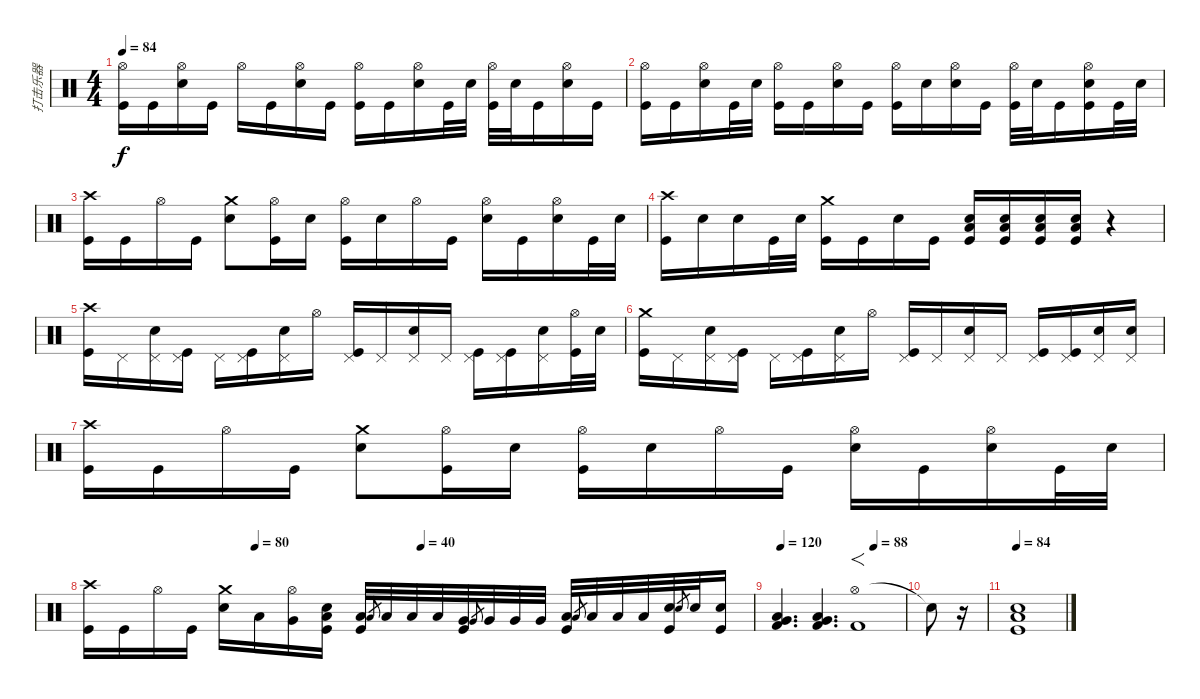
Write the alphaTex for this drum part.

\track ("打击乐器" "打击乐器") {instrument percussion}
\staff {score}
\articulation defaults
\ts (4 4)
\tempo 84
\clef neutral
\ks c
("Hi-Hat (open)" "Kick (hit)").16{dy f} "Kick (hit)".16 ("Hi-Hat (open)" "Electric Snare (hit)").16 "Kick (hit)".16 "Hi-Hat (open)".16 "Kick (hit)".16 ("Hi-Hat (open)" "Electric Snare (hit)").16 "Kick (hit)".16 ("Hi-Hat (open)" "Kick (hit)").16 "Kick (hit)".16 ("Hi-Hat (open)" "Electric Snare (hit)").16 "Kick (hit)".32 "Electric Snare (hit)".32 ("Hi-Hat (open)" "Kick (hit)").32 "Electric Snare (hit)".32 "Kick (hit)".16 ("Hi-Hat (open)" "Electric Snare (hit)").16 "Kick (hit)".16 |
("Hi-Hat (open)" "Kick (hit)").16 "Kick (hit)".16 ("Hi-Hat (open)" "Electric Snare (hit)").16 "Kick (hit)".32 "Electric Snare (hit)".32 ("Hi-Hat (open)" "Kick (hit)").16 "Kick (hit)".16 ("Hi-Hat (open)" "Electric Snare (hit)").16 "Kick (hit)".16 ("Hi-Hat (open)" "Kick (hit)").16 "Electric Snare (hit)".16 ("Hi-Hat (open)" "Electric Snare (hit)").16 "Kick (hit)".16 ("Hi-Hat (open)" "Kick (hit)").32 "Electric Snare (hit)".32 "Kick (hit)".16 ("Hi-Hat (open)" "Electric Snare (hit)" "Kick (hit)").16 "Kick (hit)".32 "Electric Snare (hit)".32 |
("Crash high (hit)" "Kick (hit)").16 "Kick (hit)".16 "Hi-Hat (open)".16 "Kick (hit)".16 ("Crash medium (hit)" "Electric Snare (hit)").8 ("Hi-Hat (open)" "Kick (hit)").16 "Electric Snare (hit)".16 ("Hi-Hat (open)" "Kick (hit)").16 "Electric Snare (hit)".16 "Hi-Hat (open)".16 "Kick (hit)".16 ("Hi-Hat (open)" "Electric Snare (hit)").16 "Kick (hit)".16 ("Hi-Hat (open)" "Electric Snare (hit)").16 "Kick (hit)".32 "Electric Snare (hit)".32 |
("Crash high (hit)" "Kick (hit)").16 "Electric Snare (hit)".16 "Electric Snare (hit)".16 "Kick (hit)".32 "Electric Snare (hit)".32 ("Crash medium (hit)" "Kick (hit)").16 "Kick (hit)".16 "Electric Snare (hit)".16 "Kick (hit)".16 ("Electric Snare (hit)" "Low Floor Tom (hit)" "Kick (hit)").16 ("Electric Snare (hit)" "Low Floor Tom (hit)" "Kick (hit)").16 ("Electric Snare (hit)" "Low Floor Tom (hit)" "Kick (hit)").16 ("Electric Snare (hit)" "Low Floor Tom (hit)" "Kick (hit)").16 r.4 |
("Crash high (hit)" "Kick (hit)").16 "Pedal Hi-Hat (hit)".16 ("Pedal Hi-Hat (hit)" "Electric Snare (hit)").16 ("Pedal Hi-Hat (hit)" "Kick (hit)").16 "Pedal Hi-Hat (hit)".16 ("Pedal Hi-Hat (hit)" "Kick (hit)").16 ("Pedal Hi-Hat (hit)" "Electric Snare (hit)").16 "Hi-Hat (open)".16 ("Pedal Hi-Hat (hit)" "Kick (hit)").16 "Pedal Hi-Hat (hit)".16 ("Pedal Hi-Hat (hit)" "Electric Snare (hit)").16 "Pedal Hi-Hat (hit)".16 ("Pedal Hi-Hat (hit)" "Kick (hit)").16 ("Pedal Hi-Hat (hit)" "Kick (hit)").16 ("Pedal Hi-Hat (hit)" "Electric Snare (hit)").16 ("Hi-Hat (open)" "Kick (hit)").32 "Electric Snare (hit)".32 |
("Crash medium (hit)" "Kick (hit)").16 "Pedal Hi-Hat (hit)".16 ("Pedal Hi-Hat (hit)" "Electric Snare (hit)").16 ("Pedal Hi-Hat (hit)" "Kick (hit)").16 "Pedal Hi-Hat (hit)".16 ("Pedal Hi-Hat (hit)" "Kick (hit)").16 ("Pedal Hi-Hat (hit)" "Electric Snare (hit)").16 "Hi-Hat (open)".16 ("Pedal Hi-Hat (hit)" "Kick (hit)").16 "Pedal Hi-Hat (hit)".16 ("Pedal Hi-Hat (hit)" "Electric Snare (hit)").16 "Pedal Hi-Hat (hit)".16 ("Pedal Hi-Hat (hit)" "Kick (hit)").16 ("Pedal Hi-Hat (hit)" "Kick (hit)").16 ("Pedal Hi-Hat (hit)" "Electric Snare (hit)").16 ("Pedal Hi-Hat (hit)" "Electric Snare (hit)").16 |
("Crash high (hit)" "Kick (hit)").16 "Kick (hit)".16 "Hi-Hat (open)".16 "Kick (hit)".16 ("Crash medium (hit)" "Electric Snare (hit)").8 ("Hi-Hat (open)" "Kick (hit)").16 "Electric Snare (hit)".16 ("Hi-Hat (open)" "Kick (hit)").16 "Electric Snare (hit)".16 "Hi-Hat (open)".16 "Kick (hit)".16 ("Hi-Hat (open)" "Electric Snare (hit)").16 "Kick (hit)".16 ("Hi-Hat (open)" "Electric Snare (hit)").16 "Kick (hit)".32 "Electric Snare (hit)".32 |
\tempo (40 0.5)
\tempo (80 0.25)
("Crash high (hit)" "Kick (hit)").16 "Kick (hit)".16 "Hi-Hat (open)".16 "Kick (hit)".16 ("Crash medium (hit)" "Electric Snare (hit)").16 "Low Tom (hit)".16 ("Hi-Hat (open)" "Very Low Tom (hit)").16 ("Low Floor Tom (hit)" "Electric Snare (hit)" "Kick (hit)").16 ("Low Tom (hit)" "Kick (hit)").32 "Low Tom (hit)".8{gr} "Low Tom (hit)".32 "Low Tom (hit)".32 "Low Tom (hit)".32 ("Very Low Tom (hit)" "Kick (hit)").32 "Very Low Tom (hit)".8{gr} "Very Low Tom (hit)".32 "Very Low Tom (hit)".32 "Very Low Tom (hit)".32 ("Low Floor Tom (hit)" "Kick (hit)").32 "Low Floor Tom (hit)".8{gr} "Low Floor Tom (hit)".32 "Low Floor Tom (hit)".32 "Low Floor Tom (hit)".32 ("Electric Snare (hit)" "Kick (hit)").32 "Electric Snare (hit)".8{gr} "Electric Snare (hit)".32 ("Electric Snare (hit)" "Kick (hit)").16 |
\tempo (88 0.75)
\tempo 120
("Very Low Tom (hit)" "Low Tom (hit)" "Kick (hit) 2").4{d bd 120} ("Very Low Tom (hit)" "Low Floor Tom (hit)" "Kick (hit) 2").4{d bd 120} ("Hi-Hat (open)"{tr (46 64)} "Kick (hit) 2").1{f} |
"Snare (hit)"{t}.8 r.16 |
\tempo 84
("Low Floor Tom (hit)" "Electric Snare (hit)" "Kick (hit)").1{bd 240}
